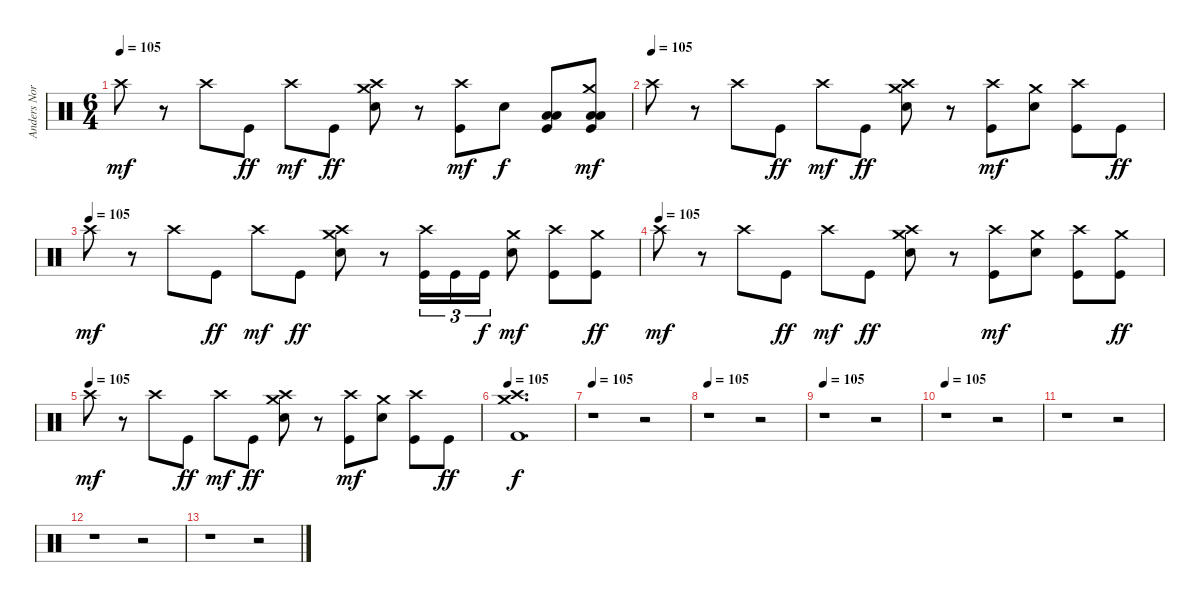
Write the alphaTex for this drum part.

\track ("Anders Nordin" "Anders Nor") {instrument percussion}
\staff {score}
\articulation defaults
\ts (6 4)
\tempo 105
\clef neutral
\ks c "Crash high (hit)".8{dy mf}
r.8 "Crash high (hit)".8 "Kick (hit)".8{dy ff} "Crash high (hit)".8{dy mf} "Kick (hit)".8{dy ff} ("Crash high (hit)" "Crash medium (hit)" "Electric Snare (hit)").8 r.8 ("Crash high (hit)" "Kick (hit)").8{dy mf} "Electric Snare (hit)".8{dy f} ("Low Floor Tom (hit)" "Low Floor Tom (hit)" "Kick (hit)").8 ("Crash medium (hit)" "Low Floor Tom (hit)" "Low Floor Tom (hit)" "Kick (hit)").8{dy mf} |
\tempo (105)
"Crash high (hit)".8 r.8 "Crash high (hit)".8 "Kick (hit)".8{dy ff} "Crash high (hit)".8{dy mf} "Kick (hit)".8{dy ff} ("Crash high (hit)" "Crash medium (hit)" "Electric Snare (hit)").8 r.8 ("Crash high (hit)" "Kick (hit)").8{dy mf} ("Crash medium (hit)" "Electric Snare (hit)").8 ("Crash high (hit)" "Kick (hit)").8 "Kick (hit)".8{dy ff} |
\tempo (105)
"Crash high (hit)".8{dy mf} r.8 "Crash high (hit)".8 "Kick (hit)".8{dy ff} "Crash high (hit)".8{dy mf} "Kick (hit)".8{dy ff} ("Crash high (hit)" "Crash medium (hit)" "Electric Snare (hit)").8 r.8 ("Crash high (hit)" "Kick (hit)").16{tu (3 2)} "Kick (hit)".16{tu (3 2)} "Kick (hit)".16{tu (3 2) dy f} ("Crash medium (hit)" "Electric Snare (hit)").8{dy mf} ("Crash high (hit)" "Kick (hit)").8 ("Crash medium (hit)" "Kick (hit)").8{dy ff} |
\tempo (105)
"Crash high (hit)".8{dy mf} r.8 "Crash high (hit)".8 "Kick (hit)".8{dy ff} "Crash high (hit)".8{dy mf} "Kick (hit)".8{dy ff} ("Crash high (hit)" "Crash medium (hit)" "Electric Snare (hit)").8 r.8 ("Crash high (hit)" "Kick (hit)").8{dy mf} ("Crash medium (hit)" "Electric Snare (hit)").8 ("Crash high (hit)" "Kick (hit)").8 ("Crash medium (hit)" "Kick (hit)").8{dy ff} |
\tempo (105)
"Crash high (hit)".8{dy mf} r.8 "Crash high (hit)".8 "Kick (hit)".8{dy ff} "Crash high (hit)".8{dy mf} "Kick (hit)".8{dy ff} ("Crash high (hit)" "Crash medium (hit)" "Electric Snare (hit)").8 r.8 ("Crash high (hit)" "Kick (hit)").8{dy mf} ("Crash medium (hit)" "Electric Snare (hit)").8 ("Crash high (hit)" "Kick (hit)").8 "Kick (hit)".8{dy ff} |
\tempo 105
("Kick (hit) 2" "Crash medium (hit)" "Crash high (hit)").1{d dy f} |
\tempo 105
r.1 r.2 |
\tempo 105
r.1 r.2 |
\tempo 105
r.1 r.2 |
\tempo 105
r.1 r.2 |
r.1 r.2 |
r.1 r.2 |
r.1 r.2
